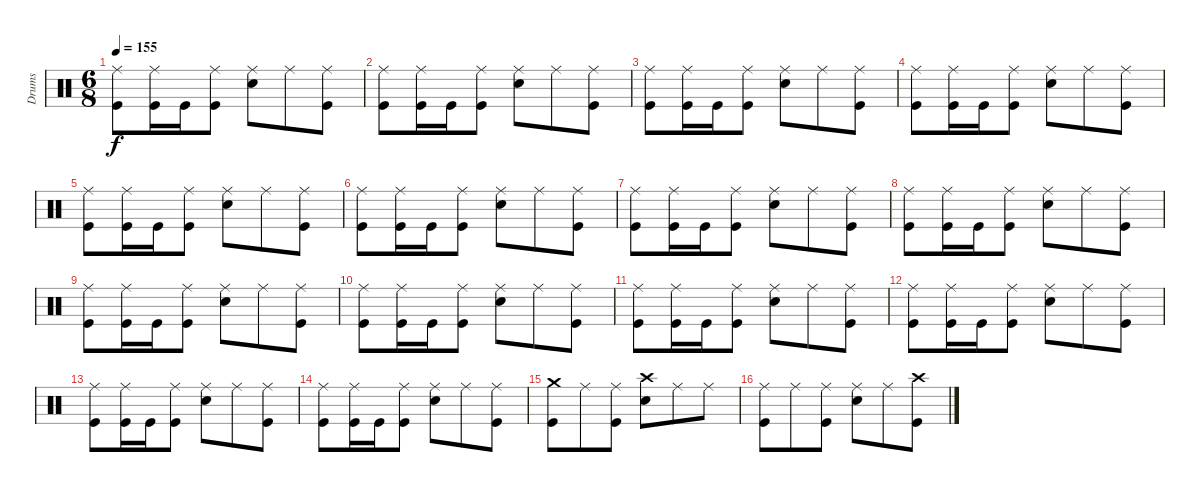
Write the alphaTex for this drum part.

\track ("Drums" "Drums") {instrument percussion}
\staff {score}
\articulation defaults
\ts (6 8)
\tempo 155
\clef neutral
\ks c
("Kick (hit)" "Ride (middle)").8{dy f} ("Kick (hit)" "Ride (middle)").16 "Kick (hit)".16 ("Kick (hit)" "Ride (middle)").8 ("Snare (hit) 2" "Ride (middle)").8 "Ride (middle)".8 ("Kick (hit)" "Ride (middle)").8 |
("Kick (hit)" "Ride (middle)").8 ("Kick (hit)" "Ride (middle)").16 "Kick (hit)".16 ("Kick (hit)" "Ride (middle)").8 ("Snare (hit) 2" "Ride (middle)").8 "Ride (middle)".8 ("Kick (hit)" "Ride (middle)").8 |
("Kick (hit)" "Ride (middle)").8 ("Kick (hit)" "Ride (middle)").16 "Kick (hit)".16 ("Kick (hit)" "Ride (middle)").8 ("Snare (hit) 2" "Ride (middle)").8 "Ride (middle)".8 ("Kick (hit)" "Ride (middle)").8 |
("Kick (hit)" "Ride (middle)").8 ("Kick (hit)" "Ride (middle)").16 "Kick (hit)".16 ("Kick (hit)" "Ride (middle)").8 ("Snare (hit) 2" "Ride (middle)").8 "Ride (middle)".8 ("Kick (hit)" "Ride (middle)").8 |
("Kick (hit)" "Ride (middle)").8 ("Kick (hit)" "Ride (middle)").16 "Kick (hit)".16 ("Kick (hit)" "Ride (middle)").8 ("Snare (hit) 2" "Ride (middle)").8 "Ride (middle)".8 ("Kick (hit)" "Ride (middle)").8 |
("Kick (hit)" "Ride (middle)").8 ("Kick (hit)" "Ride (middle)").16 "Kick (hit)".16 ("Kick (hit)" "Ride (middle)").8 ("Snare (hit) 2" "Ride (middle)").8 "Ride (middle)".8 ("Kick (hit)" "Ride (middle)").8 |
("Kick (hit)" "Ride (middle)").8 ("Kick (hit)" "Ride (middle)").16 "Kick (hit)".16 ("Kick (hit)" "Ride (middle)").8 ("Snare (hit) 2" "Ride (middle)").8 "Ride (middle)".8 ("Kick (hit)" "Ride (middle)").8 |
("Kick (hit)" "Ride (middle)").8 ("Kick (hit)" "Ride (middle)").16 "Kick (hit)".16 ("Kick (hit)" "Ride (middle)").8 ("Snare (hit) 2" "Ride (middle)").8 "Ride (middle)".8 ("Kick (hit)" "Ride (middle)").8 |
("Kick (hit)" "Ride (middle)").8 ("Kick (hit)" "Ride (middle)").16 "Kick (hit)".16 ("Kick (hit)" "Ride (middle)").8 ("Snare (hit) 2" "Ride (middle)").8 "Ride (middle)".8 ("Kick (hit)" "Ride (middle)").8 |
("Kick (hit)" "Ride (middle)").8 ("Kick (hit)" "Ride (middle)").16 "Kick (hit)".16 ("Kick (hit)" "Ride (middle)").8 ("Snare (hit) 2" "Ride (middle)").8 "Ride (middle)".8 ("Kick (hit)" "Ride (middle)").8 |
("Kick (hit)" "Ride (middle)").8 ("Kick (hit)" "Ride (middle)").16 "Kick (hit)".16 ("Kick (hit)" "Ride (middle)").8 ("Snare (hit) 2" "Ride (middle)").8 "Ride (middle)".8 ("Kick (hit)" "Ride (middle)").8 |
("Kick (hit)" "Ride (middle)").8 ("Kick (hit)" "Ride (middle)").16 "Kick (hit)".16 ("Kick (hit)" "Ride (middle)").8 ("Snare (hit) 2" "Ride (middle)").8 "Ride (middle)".8 ("Kick (hit)" "Ride (middle)").8 |
("Kick (hit)" "Ride (middle)").8 ("Kick (hit)" "Ride (middle)").16 "Kick (hit)".16 ("Kick (hit)" "Ride (middle)").8 ("Snare (hit) 2" "Ride (middle)").8 "Ride (middle)".8 ("Kick (hit)" "Ride (middle)").8 |
("Kick (hit)" "Ride (middle)").8 ("Kick (hit)" "Ride (middle)").16 "Kick (hit)".16 ("Kick (hit)" "Ride (middle)").8 ("Snare (hit) 2" "Ride (middle)").8 "Ride (middle)".8 ("Kick (hit)" "Ride (middle)").8 |
("Kick (hit)" "Crash medium (hit)").8 "Ride (middle)".8 ("Kick (hit)" "Ride (middle)").8 ("Snare (hit) 2" "Crash high (hit)").8 "Ride (middle)".8 "Ride (middle)".8 |
("Kick (hit)" "Ride (middle)").8 "Ride (middle)".8 ("Kick (hit)" "Ride (middle)").8 ("Snare (hit) 2" "Ride (middle)").8 "Ride (middle)".8 ("Kick (hit)" "Crash high (hit)").8
